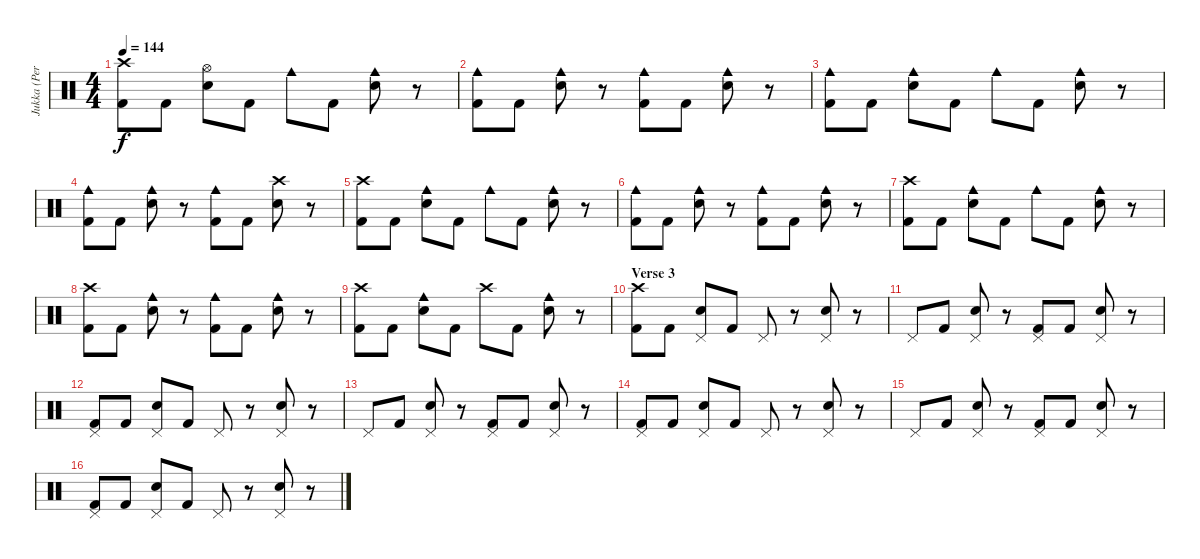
\track ("Jukka (Percussion)" "Jukka (Per") {instrument percussion}
\staff {score}
\articulation defaults
\ts (4 4)
\tempo 144
\clef neutral
\ks c
("Crash high (hit)" "Kick (hit) 2").8{dy f} "Kick (hit) 2".8 ("Hi-Hat (open)" "Electric Snare (hit)").8 "Kick (hit) 2".8 "Cowbell medium (hit)".8 "Kick (hit) 2".8 ("Cowbell medium (hit)" "Electric Snare (hit)").8 r.8 |
("Cowbell medium (hit)" "Kick (hit) 2").8 "Kick (hit) 2".8 ("Cowbell medium (hit)" "Electric Snare (hit)").8 r.8 ("Cowbell medium (hit)" "Kick (hit) 2").8 "Kick (hit) 2".8 ("Cowbell medium (hit)" "Electric Snare (hit)").8 r.8 |
("Cowbell medium (hit)" "Kick (hit) 2").8 "Kick (hit) 2".8 ("Cowbell medium (hit)" "Electric Snare (hit)").8 "Kick (hit) 2".8 "Cowbell medium (hit)".8 "Kick (hit) 2".8 ("Cowbell medium (hit)" "Electric Snare (hit)").8 r.8 |
("Cowbell medium (hit)" "Kick (hit) 2").8 "Kick (hit) 2".8 ("Cowbell medium (hit)" "Electric Snare (hit)").8 r.8 ("Cowbell medium (hit)" "Kick (hit) 2").8 "Kick (hit) 2".8 ("Crash high (hit)" "Electric Snare (hit)").8 r.8 |
("Crash high (hit)" "Kick (hit) 2").8 "Kick (hit) 2".8 ("Cowbell medium (hit)" "Electric Snare (hit)").8 "Kick (hit) 2".8 "Cowbell medium (hit)".8 "Kick (hit) 2".8 ("Cowbell medium (hit)" "Electric Snare (hit)").8 r.8 |
("Cowbell medium (hit)" "Kick (hit) 2").8 "Kick (hit) 2".8 ("Cowbell medium (hit)" "Electric Snare (hit)").8 r.8 ("Cowbell medium (hit)" "Kick (hit) 2").8 "Kick (hit) 2".8 ("Cowbell medium (hit)" "Electric Snare (hit)").8 r.8 |
("Crash high (hit)" "Kick (hit) 2").8 "Kick (hit) 2".8 ("Cowbell medium (hit)" "Electric Snare (hit)").8 "Kick (hit) 2".8 "Cowbell medium (hit)".8 "Kick (hit) 2".8 ("Cowbell medium (hit)" "Electric Snare (hit)").8 r.8 |
("Crash high (hit)" "Kick (hit) 2").8 "Kick (hit) 2".8 ("Cowbell medium (hit)" "Electric Snare (hit)").8 r.8 ("Cowbell medium (hit)" "Kick (hit) 2").8 "Kick (hit) 2".8 ("Cowbell medium (hit)" "Electric Snare (hit)").8 r.8 |
("Crash high (hit)" "Kick (hit) 2").8 "Kick (hit) 2".8 ("Cowbell medium (hit)" "Electric Snare (hit)").8 "Kick (hit) 2".8 "Crash high (hit)".8 "Kick (hit) 2".8 ("Cowbell medium (hit)" "Electric Snare (hit)").8 r.8 |
\section ("" "Verse 3")
("Crash high (hit)" "Kick (hit) 2").8 "Kick (hit) 2".8 ("Pedal Hi-Hat (hit)" "Electric Snare (hit)").8 "Kick (hit) 2".8 "Pedal Hi-Hat (hit)".8 r.8 ("Pedal Hi-Hat (hit)" "Electric Snare (hit)").8 r.8 |
"Pedal Hi-Hat (hit)".8 "Kick (hit) 2".8 ("Pedal Hi-Hat (hit)" "Electric Snare (hit)").8 r.8 ("Pedal Hi-Hat (hit)" "Kick (hit) 2").8 "Kick (hit) 2".8 ("Pedal Hi-Hat (hit)" "Electric Snare (hit)").8 r.8 |
("Pedal Hi-Hat (hit)" "Kick (hit) 2").8 "Kick (hit) 2".8 ("Pedal Hi-Hat (hit)" "Electric Snare (hit)").8 "Kick (hit) 2".8 "Pedal Hi-Hat (hit)".8 r.8 ("Pedal Hi-Hat (hit)" "Electric Snare (hit)").8 r.8 |
"Pedal Hi-Hat (hit)".8 "Kick (hit) 2".8 ("Pedal Hi-Hat (hit)" "Electric Snare (hit)").8 r.8 ("Pedal Hi-Hat (hit)" "Kick (hit) 2").8 "Kick (hit) 2".8 ("Pedal Hi-Hat (hit)" "Electric Snare (hit)").8 r.8 |
("Pedal Hi-Hat (hit)" "Kick (hit) 2").8 "Kick (hit) 2".8 ("Pedal Hi-Hat (hit)" "Electric Snare (hit)").8 "Kick (hit) 2".8 "Pedal Hi-Hat (hit)".8 r.8 ("Pedal Hi-Hat (hit)" "Electric Snare (hit)").8 r.8 |
"Pedal Hi-Hat (hit)".8 "Kick (hit) 2".8 ("Pedal Hi-Hat (hit)" "Electric Snare (hit)").8 r.8 ("Pedal Hi-Hat (hit)" "Kick (hit) 2").8 "Kick (hit) 2".8 ("Pedal Hi-Hat (hit)" "Electric Snare (hit)").8 r.8 |
("Pedal Hi-Hat (hit)" "Kick (hit) 2").8 "Kick (hit) 2".8 ("Pedal Hi-Hat (hit)" "Electric Snare (hit)").8 "Kick (hit) 2".8 "Pedal Hi-Hat (hit)".8 r.8 ("Pedal Hi-Hat (hit)" "Electric Snare (hit)").8 r.8
